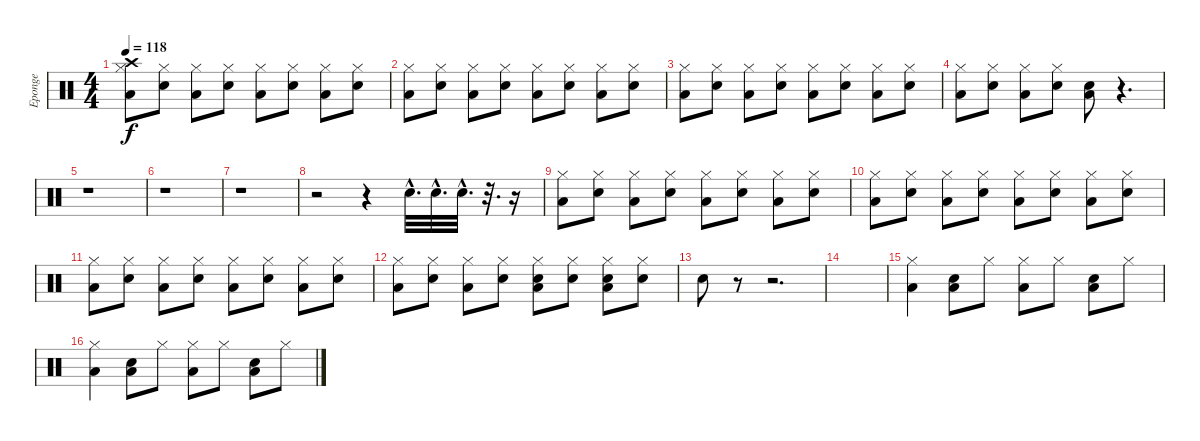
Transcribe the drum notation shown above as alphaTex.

\track ("Eponge" "Eponge") {instrument percussion}
\staff {score}
\articulation defaults
\ts (4 4)
\tempo 118
\clef neutral
\ks c
("Low Floor Tom (hit)" "Hi-Hat (closed)" "Crash high (hit)").8{dy f} ("Snare (hit) 2" "Hi-Hat (closed)").8 ("Low Floor Tom (hit)" "Hi-Hat (closed)").8 ("Snare (hit) 2" "Hi-Hat (closed)").8 ("Low Floor Tom (hit)" "Hi-Hat (closed)").8 ("Snare (hit) 2" "Hi-Hat (closed)").8 ("Low Floor Tom (hit)" "Hi-Hat (closed)").8 ("Snare (hit) 2" "Hi-Hat (closed)").8 |
("Low Floor Tom (hit)" "Hi-Hat (closed)").8 ("Snare (hit) 2" "Hi-Hat (closed)").8 ("Low Floor Tom (hit)" "Hi-Hat (closed)").8 ("Snare (hit) 2" "Hi-Hat (closed)").8 ("Low Floor Tom (hit)" "Hi-Hat (closed)").8 ("Snare (hit) 2" "Hi-Hat (closed)").8 ("Low Floor Tom (hit)" "Hi-Hat (closed)").8 ("Snare (hit) 2" "Hi-Hat (closed)").8 |
("Low Floor Tom (hit)" "Hi-Hat (closed)").8 ("Snare (hit) 2" "Hi-Hat (closed)").8 ("Low Floor Tom (hit)" "Hi-Hat (closed)").8 ("Snare (hit) 2" "Hi-Hat (closed)").8 ("Low Floor Tom (hit)" "Hi-Hat (closed)").8 ("Snare (hit) 2" "Hi-Hat (closed)").8 ("Low Floor Tom (hit)" "Hi-Hat (closed)").8 ("Snare (hit) 2" "Hi-Hat (closed)").8 |
("Low Floor Tom (hit)" "Hi-Hat (closed)").8 ("Snare (hit) 2" "Hi-Hat (closed)").8 ("Low Floor Tom (hit)" "Hi-Hat (closed)").8 ("Snare (hit) 2" "Hi-Hat (closed)").8 ("Low Floor Tom (hit)" "Snare (hit) 2").8 r.4{d} |
r.1 |
r.1 |
r.1 |
r.2 r.4 "Snare (hit) 2"{hac}.32{d} "Snare (hit) 2"{hac}.32{d} "Snare (hit) 2"{hac}.32{d} r.32{d} r.16 |
("Low Floor Tom (hit)" "Hi-Hat (closed)").8 ("Hi-Hat (closed)" "Snare (hit) 2").8 ("Low Floor Tom (hit)" "Hi-Hat (closed)").8 ("Hi-Hat (closed)" "Snare (hit) 2").8 ("Low Floor Tom (hit)" "Hi-Hat (closed)").8 ("Hi-Hat (closed)" "Snare (hit) 2").8 ("Low Floor Tom (hit)" "Hi-Hat (closed)").8 ("Hi-Hat (closed)" "Snare (hit) 2").8 |
("Low Floor Tom (hit)" "Hi-Hat (closed)").8 ("Hi-Hat (closed)" "Snare (hit) 2").8 ("Low Floor Tom (hit)" "Hi-Hat (closed)").8 ("Hi-Hat (closed)" "Snare (hit) 2").8 ("Low Floor Tom (hit)" "Hi-Hat (closed)").8 ("Hi-Hat (closed)" "Snare (hit) 2").8 ("Low Floor Tom (hit)" "Hi-Hat (closed)").8 ("Hi-Hat (closed)" "Snare (hit) 2").8 |
("Low Floor Tom (hit)" "Hi-Hat (closed)").8 ("Hi-Hat (closed)" "Snare (hit) 2").8 ("Low Floor Tom (hit)" "Hi-Hat (closed)").8 ("Hi-Hat (closed)" "Snare (hit) 2").8 ("Low Floor Tom (hit)" "Hi-Hat (closed)").8 ("Hi-Hat (closed)" "Snare (hit) 2").8 ("Low Floor Tom (hit)" "Hi-Hat (closed)").8 ("Hi-Hat (closed)" "Snare (hit) 2").8 |
("Low Floor Tom (hit)" "Hi-Hat (closed)").8 ("Hi-Hat (closed)" "Snare (hit) 2").8 ("Low Floor Tom (hit)" "Hi-Hat (closed)").8 ("Hi-Hat (closed)" "Snare (hit) 2").8 ("Low Floor Tom (hit)" "Hi-Hat (closed)" "Snare (hit) 2").8 ("Hi-Hat (closed)" "Snare (hit) 2").8 ("Low Floor Tom (hit)" "Hi-Hat (closed)" "Snare (hit) 2").8 ("Hi-Hat (closed)" "Snare (hit) 2").8 |
"Snare (hit) 2".8 r.8 r.2{d} |
|
("Low Floor Tom (hit)" "Hi-Hat (closed)").4 ("Low Floor Tom (hit)" "Snare (hit) 2").8 "Hi-Hat (closed)".8 ("Low Floor Tom (hit)" "Hi-Hat (closed)").8 "Hi-Hat (closed)".8 ("Low Floor Tom (hit)" "Snare (hit) 2").8 "Hi-Hat (closed)".8 |
("Low Floor Tom (hit)" "Hi-Hat (closed)").4 ("Low Floor Tom (hit)" "Snare (hit) 2").8 "Hi-Hat (closed)".8 ("Low Floor Tom (hit)" "Hi-Hat (closed)").8 "Hi-Hat (closed)".8 ("Low Floor Tom (hit)" "Snare (hit) 2").8 "Hi-Hat (closed)".8
